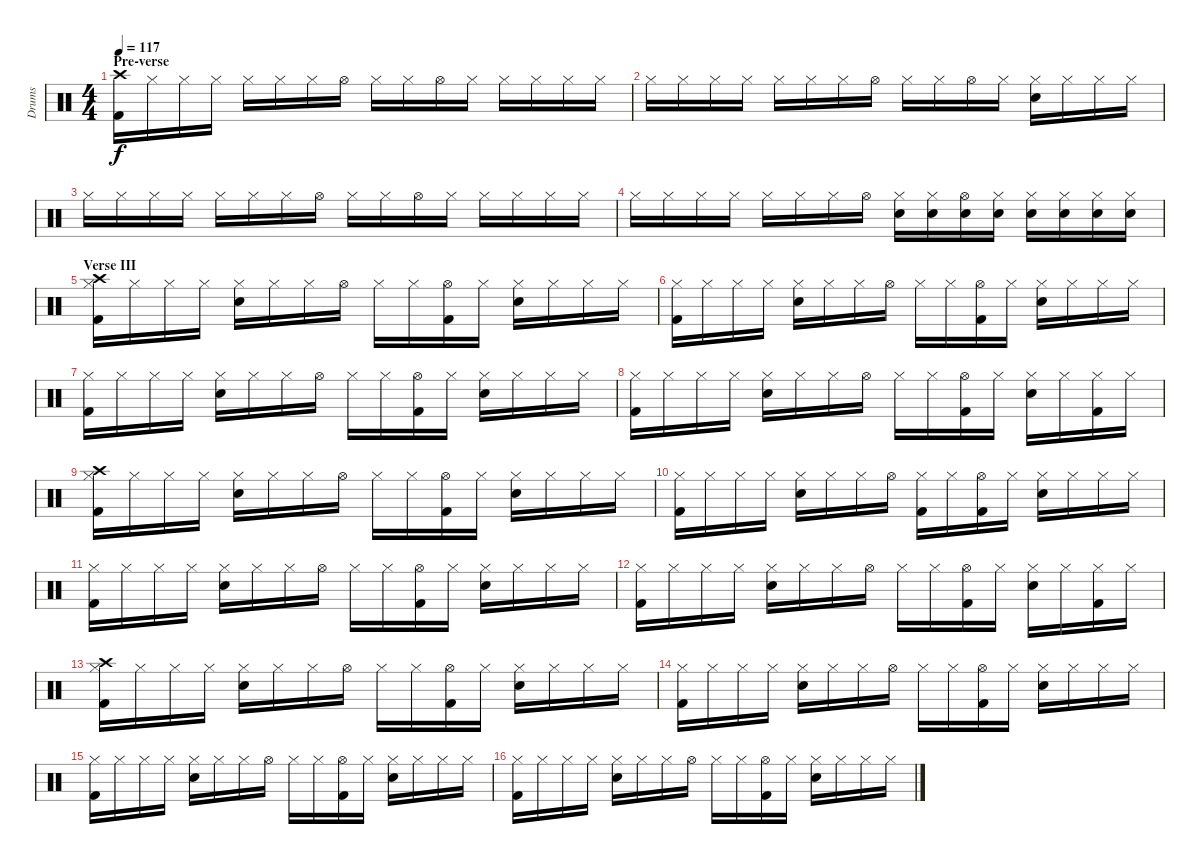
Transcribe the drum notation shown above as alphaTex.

\track ("Drums" "Drums") {instrument percussion}
\staff {score}
\articulation defaults
\ts (4 4)
\section ("" "Pre-verse")
\tempo 117
\clef neutral
\ks c
("Kick (hit) 2" "Crash high (hit)").16{dy f} "Hi-Hat (closed)".16 "Hi-Hat (closed)".16 "Hi-Hat (closed)".16 "Hi-Hat (closed)".16 "Hi-Hat (closed)".16 "Hi-Hat (closed)".16 "Hi-Hat (open)".16 "Hi-Hat (closed)".16 "Hi-Hat (closed)".16 "Hi-Hat (open)".16 "Hi-Hat (closed)".16 "Hi-Hat (closed)".16 "Hi-Hat (closed)".16 "Hi-Hat (closed)".16 "Hi-Hat (closed)".16 |
"Hi-Hat (closed)".16 "Hi-Hat (closed)".16 "Hi-Hat (closed)".16 "Hi-Hat (closed)".16 "Hi-Hat (closed)".16 "Hi-Hat (closed)".16 "Hi-Hat (closed)".16 "Hi-Hat (open)".16 "Hi-Hat (closed)".16 "Hi-Hat (closed)".16 "Hi-Hat (open)".16 "Hi-Hat (closed)".16 ("Hi-Hat (closed)" "Snare (hit) 2").16 "Hi-Hat (closed)".16 "Hi-Hat (closed)".16 "Hi-Hat (closed)".16 |
"Hi-Hat (closed)".16 "Hi-Hat (closed)".16 "Hi-Hat (closed)".16 "Hi-Hat (closed)".16 "Hi-Hat (closed)".16 "Hi-Hat (closed)".16 "Hi-Hat (closed)".16 "Hi-Hat (open)".16 "Hi-Hat (closed)".16 "Hi-Hat (closed)".16 "Hi-Hat (open)".16 "Hi-Hat (closed)".16 "Hi-Hat (closed)".16 "Hi-Hat (closed)".16 "Hi-Hat (closed)".16 "Hi-Hat (closed)".16 |
"Hi-Hat (closed)".16 "Hi-Hat (closed)".16 "Hi-Hat (closed)".16 "Hi-Hat (closed)".16 "Hi-Hat (closed)".16 "Hi-Hat (closed)".16 "Hi-Hat (closed)".16 "Hi-Hat (open)".16 ("Hi-Hat (closed)" "Snare (hit) 2").16 ("Hi-Hat (closed)" "Snare (hit) 2").16 ("Hi-Hat (open)" "Snare (hit) 2").16 ("Hi-Hat (closed)" "Snare (hit) 2").16 ("Hi-Hat (closed)" "Snare (hit) 2").16 ("Hi-Hat (closed)" "Snare (hit) 2").16 ("Hi-Hat (closed)" "Snare (hit) 2").16 ("Hi-Hat (closed)" "Snare (hit) 2").16 |
\section ("" "Verse III")
("Hi-Hat (closed)" "Kick (hit) 2" "Crash high (hit)").16 "Hi-Hat (closed)".16 "Hi-Hat (closed)".16 "Hi-Hat (closed)".16 ("Hi-Hat (closed)" "Snare (hit) 2").16 "Hi-Hat (closed)".16 "Hi-Hat (closed)".16 "Hi-Hat (open)".16 "Hi-Hat (closed)".16 "Hi-Hat (closed)".16 ("Hi-Hat (open)" "Kick (hit) 2").16 "Hi-Hat (closed)".16 ("Hi-Hat (closed)" "Snare (hit) 2").16 "Hi-Hat (closed)".16 "Hi-Hat (closed)".16 "Hi-Hat (closed)".16 |
("Hi-Hat (closed)" "Kick (hit) 2").16 "Hi-Hat (closed)".16 "Hi-Hat (closed)".16 "Hi-Hat (closed)".16 ("Hi-Hat (closed)" "Snare (hit) 2").16 "Hi-Hat (closed)".16 "Hi-Hat (closed)".16 "Hi-Hat (open)".16 "Hi-Hat (closed)".16 "Hi-Hat (closed)".16 ("Hi-Hat (open)" "Kick (hit) 2").16 "Hi-Hat (closed)".16 ("Hi-Hat (closed)" "Snare (hit) 2").16 "Hi-Hat (closed)".16 "Hi-Hat (closed)".16 "Hi-Hat (closed)".16 |
("Hi-Hat (closed)" "Kick (hit) 2").16 "Hi-Hat (closed)".16 "Hi-Hat (closed)".16 "Hi-Hat (closed)".16 ("Hi-Hat (closed)" "Snare (hit) 2").16 "Hi-Hat (closed)".16 "Hi-Hat (closed)".16 "Hi-Hat (open)".16 "Hi-Hat (closed)".16 "Hi-Hat (closed)".16 ("Hi-Hat (open)" "Kick (hit) 2").16 "Hi-Hat (closed)".16 ("Hi-Hat (closed)" "Snare (hit) 2").16 "Hi-Hat (closed)".16 "Hi-Hat (closed)".16 "Hi-Hat (closed)".16 |
("Hi-Hat (closed)" "Kick (hit) 2").16 "Hi-Hat (closed)".16 "Hi-Hat (closed)".16 "Hi-Hat (closed)".16 ("Hi-Hat (closed)" "Snare (hit) 2").16 "Hi-Hat (closed)".16 "Hi-Hat (closed)".16 "Hi-Hat (open)".16 "Hi-Hat (closed)".16 "Hi-Hat (closed)".16 ("Hi-Hat (open)" "Kick (hit) 2").16 "Hi-Hat (closed)".16 ("Hi-Hat (closed)" "Snare (hit) 2").16 "Hi-Hat (closed)".16 ("Hi-Hat (closed)" "Kick (hit) 2").16 "Hi-Hat (closed)".16 |
("Hi-Hat (closed)" "Kick (hit) 2" "Crash high (hit)").16 "Hi-Hat (closed)".16 "Hi-Hat (closed)".16 "Hi-Hat (closed)".16 ("Hi-Hat (closed)" "Snare (hit) 2").16 "Hi-Hat (closed)".16 "Hi-Hat (closed)".16 "Hi-Hat (open)".16 "Hi-Hat (closed)".16 "Hi-Hat (closed)".16 ("Hi-Hat (open)" "Kick (hit) 2").16 "Hi-Hat (closed)".16 ("Hi-Hat (closed)" "Snare (hit) 2").16 "Hi-Hat (closed)".16 "Hi-Hat (closed)".16 "Hi-Hat (closed)".16 |
("Hi-Hat (closed)" "Kick (hit) 2").16 "Hi-Hat (closed)".16 "Hi-Hat (closed)".16 "Hi-Hat (closed)".16 ("Hi-Hat (closed)" "Snare (hit) 2").16 "Hi-Hat (closed)".16 "Hi-Hat (closed)".16 "Hi-Hat (open)".16 ("Hi-Hat (closed)" "Kick (hit) 2").16 "Hi-Hat (closed)".16 ("Hi-Hat (open)" "Kick (hit) 2").16 "Hi-Hat (closed)".16 ("Hi-Hat (closed)" "Snare (hit) 2").16 "Hi-Hat (closed)".16 "Hi-Hat (closed)".16 "Hi-Hat (closed)".16 |
("Hi-Hat (closed)" "Kick (hit) 2").16 "Hi-Hat (closed)".16 "Hi-Hat (closed)".16 "Hi-Hat (closed)".16 ("Hi-Hat (closed)" "Snare (hit) 2").16 "Hi-Hat (closed)".16 "Hi-Hat (closed)".16 "Hi-Hat (open)".16 "Hi-Hat (closed)".16 "Hi-Hat (closed)".16 ("Hi-Hat (open)" "Kick (hit) 2").16 "Hi-Hat (closed)".16 ("Hi-Hat (closed)" "Snare (hit) 2").16 "Hi-Hat (closed)".16 "Hi-Hat (closed)".16 "Hi-Hat (closed)".16 |
("Hi-Hat (closed)" "Kick (hit) 2").16 "Hi-Hat (closed)".16 "Hi-Hat (closed)".16 "Hi-Hat (closed)".16 ("Hi-Hat (closed)" "Snare (hit) 2").16 "Hi-Hat (closed)".16 "Hi-Hat (closed)".16 "Hi-Hat (open)".16 "Hi-Hat (closed)".16 "Hi-Hat (closed)".16 ("Hi-Hat (open)" "Kick (hit) 2").16 "Hi-Hat (closed)".16 ("Hi-Hat (closed)" "Snare (hit) 2").16 "Hi-Hat (closed)".16 ("Hi-Hat (closed)" "Kick (hit) 2").16 "Hi-Hat (closed)".16 |
("Hi-Hat (closed)" "Kick (hit) 2" "Crash high (hit)").16 "Hi-Hat (closed)".16 "Hi-Hat (closed)".16 "Hi-Hat (closed)".16 ("Hi-Hat (closed)" "Snare (hit) 2").16 "Hi-Hat (closed)".16 "Hi-Hat (closed)".16 "Hi-Hat (open)".16 "Hi-Hat (closed)".16 "Hi-Hat (closed)".16 ("Hi-Hat (open)" "Kick (hit) 2").16 "Hi-Hat (closed)".16 ("Hi-Hat (closed)" "Snare (hit) 2").16 "Hi-Hat (closed)".16 "Hi-Hat (closed)".16 "Hi-Hat (closed)".16 |
("Hi-Hat (closed)" "Kick (hit) 2").16 "Hi-Hat (closed)".16 "Hi-Hat (closed)".16 "Hi-Hat (closed)".16 ("Hi-Hat (closed)" "Snare (hit) 2").16 "Hi-Hat (closed)".16 "Hi-Hat (closed)".16 "Hi-Hat (open)".16 "Hi-Hat (closed)".16 "Hi-Hat (closed)".16 ("Hi-Hat (open)" "Kick (hit) 2").16 "Hi-Hat (closed)".16 ("Hi-Hat (closed)" "Snare (hit) 2").16 "Hi-Hat (closed)".16 "Hi-Hat (closed)".16 "Hi-Hat (closed)".16 |
("Hi-Hat (closed)" "Kick (hit) 2").16 "Hi-Hat (closed)".16 "Hi-Hat (closed)".16 "Hi-Hat (closed)".16 ("Hi-Hat (closed)" "Snare (hit) 2").16 "Hi-Hat (closed)".16 "Hi-Hat (closed)".16 "Hi-Hat (open)".16 "Hi-Hat (closed)".16 "Hi-Hat (closed)".16 ("Hi-Hat (open)" "Kick (hit) 2").16 "Hi-Hat (closed)".16 ("Hi-Hat (closed)" "Snare (hit) 2").16 "Hi-Hat (closed)".16 "Hi-Hat (closed)".16 "Hi-Hat (closed)".16 |
("Hi-Hat (closed)" "Kick (hit) 2").16 "Hi-Hat (closed)".16 "Hi-Hat (closed)".16 "Hi-Hat (closed)".16 ("Hi-Hat (closed)" "Snare (hit) 2").16 "Hi-Hat (closed)".16 "Hi-Hat (closed)".16 "Hi-Hat (open)".16 "Hi-Hat (closed)".16 "Hi-Hat (closed)".16 ("Hi-Hat (open)" "Kick (hit) 2").16 "Hi-Hat (closed)".16 ("Hi-Hat (closed)" "Snare (hit) 2").16 "Hi-Hat (closed)".16 "Hi-Hat (closed)".16 "Hi-Hat (closed)".16
